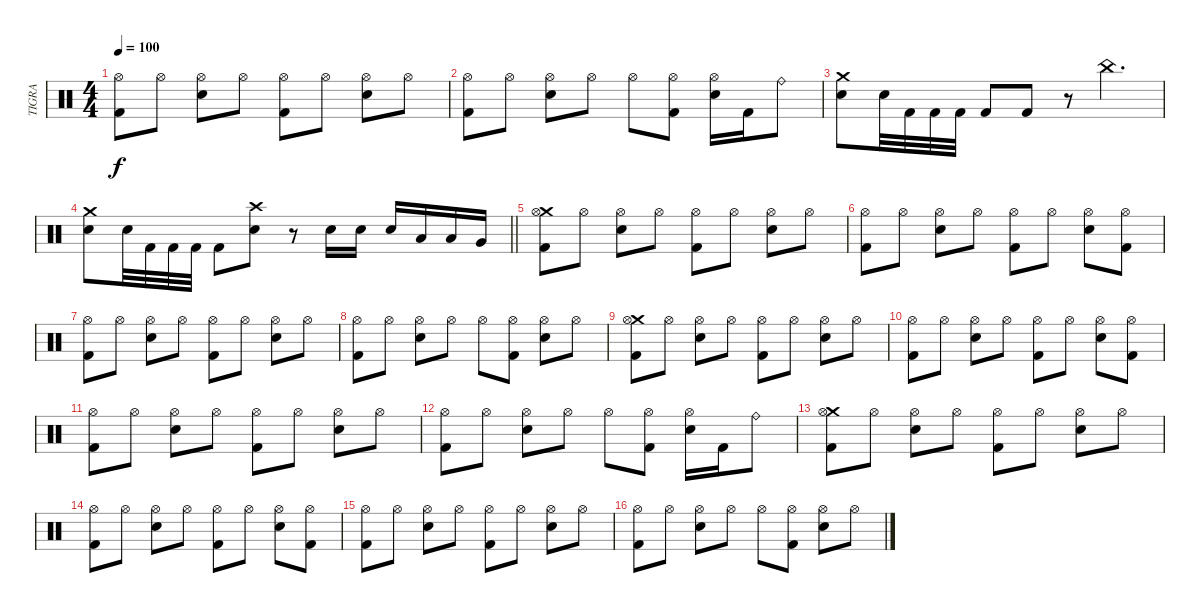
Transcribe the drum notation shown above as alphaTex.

\track ("TIGRA" "TIGRA") {instrument percussion}
\staff {score}
\articulation defaults
\ts (4 4)
\tempo 100
\clef neutral
\ks c
("Hi-Hat (open)" "Kick (hit) 2").8{dy f} "Hi-Hat (open)".8 ("Hi-Hat (open)" "Snare (hit) 2").8 "Hi-Hat (open)".8 ("Hi-Hat (open)" "Kick (hit) 2").8 "Hi-Hat (open)".8 ("Hi-Hat (open)" "Snare (hit) 2").8 "Hi-Hat (open)".8 |
("Hi-Hat (open)" "Kick (hit) 2").8 "Hi-Hat (open)".8 ("Hi-Hat (open)" "Snare (hit) 2").8 "Hi-Hat (open)".8 "Hi-Hat (open)".8 ("Hi-Hat (open)" "Kick (hit) 2").8 ("Hi-Hat (open)" "Snare (hit) 2").16 "Kick (hit) 2".16 "Ride (bell)".8 |
("Crash medium (hit)" "Snare (hit) 2").8 "Snare (hit) 2".32 "Kick (hit) 2".32 "Kick (hit) 2".32 "Kick (hit) 2".32 "Kick (hit) 2".8 "Kick (hit) 2".8 r.8 "China (hit)".4{d} |
\barLineRight lightlight
("Crash medium (hit)" "Snare (hit) 2").8 "Snare (hit) 2".32 "Kick (hit) 2".32 "Kick (hit) 2".32 "Kick (hit) 2".32 "Kick (hit) 2".8 ("Crash high (hit)" "Snare (hit) 2").8 r.8 "Snare (hit) 2".16 "Snare (hit) 2".16 "Snare (hit) 2".16 "Low Tom (hit)".16 "Low Tom (hit)".16 "Very Low Tom (hit)".16 |
("Crash medium (hit)" "Hi-Hat (open)" "Kick (hit) 2").8 "Hi-Hat (open)".8 ("Hi-Hat (open)" "Snare (hit) 2").8 "Hi-Hat (open)".8 ("Hi-Hat (open)" "Kick (hit) 2").8 "Hi-Hat (open)".8 ("Hi-Hat (open)" "Snare (hit) 2").8 "Hi-Hat (open)".8 |
("Hi-Hat (open)" "Kick (hit) 2").8 "Hi-Hat (open)".8 ("Hi-Hat (open)" "Snare (hit) 2").8 "Hi-Hat (open)".8 ("Hi-Hat (open)" "Kick (hit) 2").8 "Hi-Hat (open)".8 ("Hi-Hat (open)" "Snare (hit) 2").8 ("Hi-Hat (open)" "Kick (hit) 2").8 |
("Hi-Hat (open)" "Kick (hit) 2").8 "Hi-Hat (open)".8 ("Hi-Hat (open)" "Snare (hit) 2").8 "Hi-Hat (open)".8 ("Hi-Hat (open)" "Kick (hit) 2").8 "Hi-Hat (open)".8 ("Hi-Hat (open)" "Snare (hit) 2").8 "Hi-Hat (open)".8 |
("Hi-Hat (open)" "Kick (hit) 2").8 "Hi-Hat (open)".8 ("Hi-Hat (open)" "Snare (hit) 2").8 "Hi-Hat (open)".8 "Hi-Hat (open)".8 ("Hi-Hat (open)" "Kick (hit) 2").8 ("Hi-Hat (open)" "Snare (hit) 2").8 "Hi-Hat (open)".8 |
("Crash medium (hit)" "Hi-Hat (open)" "Kick (hit) 2").8 "Hi-Hat (open)".8 ("Hi-Hat (open)" "Snare (hit) 2").8 "Hi-Hat (open)".8 ("Hi-Hat (open)" "Kick (hit) 2").8 "Hi-Hat (open)".8 ("Hi-Hat (open)" "Snare (hit) 2").8 "Hi-Hat (open)".8 |
("Hi-Hat (open)" "Kick (hit) 2").8 "Hi-Hat (open)".8 ("Hi-Hat (open)" "Snare (hit) 2").8 "Hi-Hat (open)".8 ("Hi-Hat (open)" "Kick (hit) 2").8 "Hi-Hat (open)".8 ("Hi-Hat (open)" "Snare (hit) 2").8 ("Hi-Hat (open)" "Kick (hit) 2").8 |
("Hi-Hat (open)" "Kick (hit) 2").8 "Hi-Hat (open)".8 ("Hi-Hat (open)" "Snare (hit) 2").8 "Hi-Hat (open)".8 ("Hi-Hat (open)" "Kick (hit) 2").8 "Hi-Hat (open)".8 ("Hi-Hat (open)" "Snare (hit) 2").8 "Hi-Hat (open)".8 |
("Hi-Hat (open)" "Kick (hit) 2").8 "Hi-Hat (open)".8 ("Hi-Hat (open)" "Snare (hit) 2").8 "Hi-Hat (open)".8 "Hi-Hat (open)".8 ("Hi-Hat (open)" "Kick (hit) 2").8 ("Hi-Hat (open)" "Snare (hit) 2").16 "Kick (hit) 2".16 "Ride (bell)".8 |
("Crash medium (hit)" "Hi-Hat (open)" "Kick (hit) 2").8 "Hi-Hat (open)".8 ("Hi-Hat (open)" "Snare (hit) 2").8 "Hi-Hat (open)".8 ("Hi-Hat (open)" "Kick (hit) 2").8 "Hi-Hat (open)".8 ("Hi-Hat (open)" "Snare (hit) 2").8 "Hi-Hat (open)".8 |
("Hi-Hat (open)" "Kick (hit) 2").8 "Hi-Hat (open)".8 ("Hi-Hat (open)" "Snare (hit) 2").8 "Hi-Hat (open)".8 ("Hi-Hat (open)" "Kick (hit) 2").8 "Hi-Hat (open)".8 ("Hi-Hat (open)" "Snare (hit) 2").8 ("Hi-Hat (open)" "Kick (hit) 2").8 |
("Hi-Hat (open)" "Kick (hit) 2").8 "Hi-Hat (open)".8 ("Hi-Hat (open)" "Snare (hit) 2").8 "Hi-Hat (open)".8 ("Hi-Hat (open)" "Kick (hit) 2").8 "Hi-Hat (open)".8 ("Hi-Hat (open)" "Snare (hit) 2").8 "Hi-Hat (open)".8 |
("Hi-Hat (open)" "Kick (hit) 2").8 "Hi-Hat (open)".8 ("Hi-Hat (open)" "Snare (hit) 2").8 "Hi-Hat (open)".8 "Hi-Hat (open)".8 ("Hi-Hat (open)" "Kick (hit) 2").8 ("Hi-Hat (open)" "Snare (hit) 2").8 "Hi-Hat (open)".8
